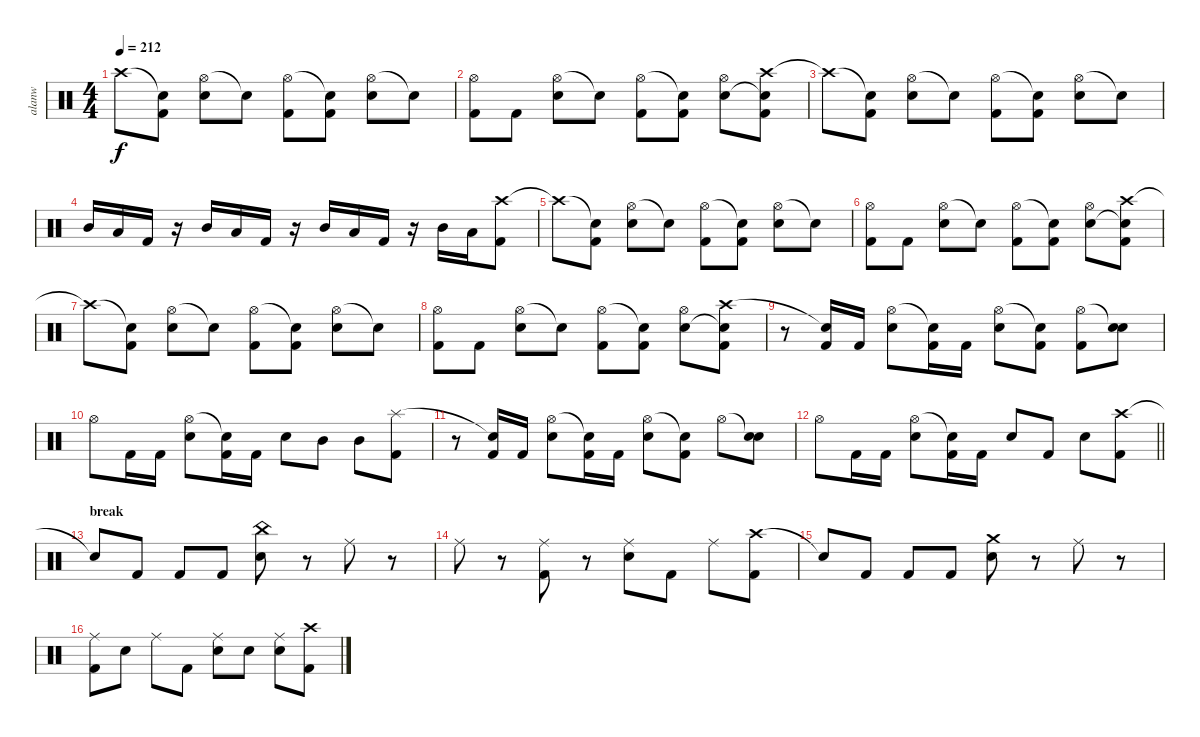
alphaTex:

\track ("alanw" "alanw") {instrument percussion}
\staff {score}
\articulation defaults
\ts (4 4)
\tempo 212
\clef neutral
\ks c "Crash high (hit)"{t}.8{dy f}
("Snare (hit)"{t} "Kick (hit) 2").8 ("Hi-Hat (open)" "Electric Snare (hit)").8 "Snare (hit)"{t}.8 ("Hi-Hat (open)" "Kick (hit) 2").8 ("Snare (hit)"{t} "Kick (hit) 2").8 ("Hi-Hat (open)" "Electric Snare (hit)").8 "Snare (hit)"{t}.8 |
("Hi-Hat (open)" "Kick (hit) 2").8 "Kick (hit) 2".8 ("Hi-Hat (open)" "Electric Snare (hit)").8 "Snare (hit)"{t}.8 ("Hi-Hat (open)" "Kick (hit) 2").8 ("Snare (hit)"{t} "Kick (hit) 2").8 ("Hi-Hat (open)" "Electric Snare (hit)").8 ("Crash high (hit)" "Snare (hit)"{t} "Kick (hit) 2").8 |
"Crash high (hit)"{t}.8 ("Snare (hit)"{t} "Kick (hit) 2").8 ("Hi-Hat (open)" "Electric Snare (hit)").8 "Snare (hit)"{t}.8 ("Hi-Hat (open)" "Kick (hit) 2").8 ("Snare (hit)"{t} "Kick (hit) 2").8 ("Hi-Hat (open)" "Electric Snare (hit)").8 "Snare (hit)"{t}.8 |
"Mid Tom (hit)".16 "Low Tom (hit)".16 "Kick (hit) 2".16 r.16 "Mid Tom (hit)".16 "Low Tom (hit)".16 "Kick (hit) 2".16 r.16 "Mid Tom (hit)".16 "Low Tom (hit)".16 "Kick (hit) 2".16 r.16 "Mid Tom (hit)".16 "Low Tom (hit)".16 ("Crash high (hit)" "Kick (hit) 2").8 |
"Crash high (hit)"{t}.8 ("Snare (hit)"{t} "Kick (hit) 2").8 ("Hi-Hat (open)" "Electric Snare (hit)").8 "Snare (hit)"{t}.8 ("Hi-Hat (open)" "Kick (hit) 2").8 ("Snare (hit)"{t} "Kick (hit) 2").8 ("Hi-Hat (open)" "Electric Snare (hit)").8 "Snare (hit)"{t}.8 |
("Hi-Hat (open)" "Kick (hit) 2").8 "Kick (hit) 2".8 ("Hi-Hat (open)" "Electric Snare (hit)").8 "Snare (hit)"{t}.8 ("Hi-Hat (open)" "Kick (hit) 2").8 ("Snare (hit)"{t} "Kick (hit) 2").8 ("Hi-Hat (open)" "Electric Snare (hit)").8 ("Crash high (hit)" "Snare (hit)"{t} "Kick (hit) 2").8 |
"Crash high (hit)"{t}.8 ("Snare (hit)"{t} "Kick (hit) 2").8 ("Hi-Hat (open)" "Electric Snare (hit)").8 "Snare (hit)"{t}.8 ("Hi-Hat (open)" "Kick (hit) 2").8 ("Snare (hit)"{t} "Kick (hit) 2").8 ("Hi-Hat (open)" "Electric Snare (hit)").8 "Snare (hit)"{t}.8 |
("Hi-Hat (open)" "Kick (hit) 2").8 "Kick (hit) 2".8 ("Hi-Hat (open)" "Electric Snare (hit)").8 "Snare (hit)"{t}.8 ("Hi-Hat (open)" "Kick (hit) 2").8 ("Snare (hit)"{t} "Kick (hit) 2").8 ("Hi-Hat (open)" "Electric Snare (hit)").8 ("Crash high (hit)" "Snare (hit)"{t} "Kick (hit) 2").8 |
r.8 ("Snare (hit)"{t} "Kick (hit) 2").16 "Kick (hit) 2".16 ("Hi-Hat (open)" "Electric Snare (hit)").8 ("Snare (hit)"{t} "Kick (hit) 2").16 "Kick (hit) 2".16 ("Hi-Hat (open)" "Electric Snare (hit)").8 ("Snare (hit)"{t} "Kick (hit) 2").8 ("Hi-Hat (open)" "Kick (hit) 2").8 ("Snare (hit)"{t} "Electric Snare (hit)").8 |
"Hi-Hat (open)".8 "Kick (hit) 2".16 "Kick (hit) 2".16 ("Hi-Hat (open)" "Electric Snare (hit)").8 ("Snare (hit)"{t} "Kick (hit) 2").16 "Kick (hit) 2".16 "Electric Snare (hit)".8 "Mid Tom (hit)".8 "Mid Tom (hit)".8 ("Splash (hit)" "Kick (hit) 2").8 |
r.8 ("Snare (hit)"{t} "Kick (hit) 2").16 "Kick (hit) 2".16 ("Hi-Hat (open)" "Electric Snare (hit)").8 ("Snare (hit)"{t} "Kick (hit) 2").16 "Kick (hit) 2".16 ("Hi-Hat (open)" "Electric Snare (hit)").8 ("Snare (hit)"{t} "Kick (hit) 2").8 "Hi-Hat (open)".8 ("Snare (hit)"{t} "Electric Snare (hit)").8 |
\barLineRight lightlight "Hi-Hat (open)".8 "Kick (hit) 2".16 "Kick (hit) 2".16
("Hi-Hat (open)" "Electric Snare (hit)").8 ("Snare (hit)"{t} "Kick (hit) 2").16 "Kick (hit) 2".16 "Electric Snare (hit)".8 "Kick (hit) 2".8 "Electric Snare (hit)".8 ("Crash high (hit)" "Kick (hit) 2").8 |
\section ("" "break")
"Snare (hit)"{t}.8 "Kick (hit) 2".8 "Kick (hit) 2".8 "Kick (hit) 2".8 ("China (hit)" "Electric Snare (hit)").8 r.8 "Ride (middle)".8 r.8 |
"Ride (middle)".8 r.8 ("Ride (middle)" "Kick (hit) 2").8 r.8 ("Ride (middle)" "Electric Snare (hit)").8 "Kick (hit) 2".8 "Ride (middle)".8 ("Crash high (hit)" "Kick (hit) 2").8 |
"Snare (hit)"{t}.8 "Kick (hit) 2".8 "Kick (hit) 2".8 "Kick (hit) 2".8 ("Crash medium (hit)" "Electric Snare (hit)").8 r.8 "Ride (middle)".8 r.8 |
("Ride (middle)" "Kick (hit) 2").8 "Electric Snare (hit)".8 "Ride (middle)".8 "Kick (hit) 2".8 ("Ride (middle)" "Electric Snare (hit)").8 "Electric Snare (hit)".8 ("Ride (middle)" "Electric Snare (hit)").8 ("Crash high (hit)" "Kick (hit) 2").8
